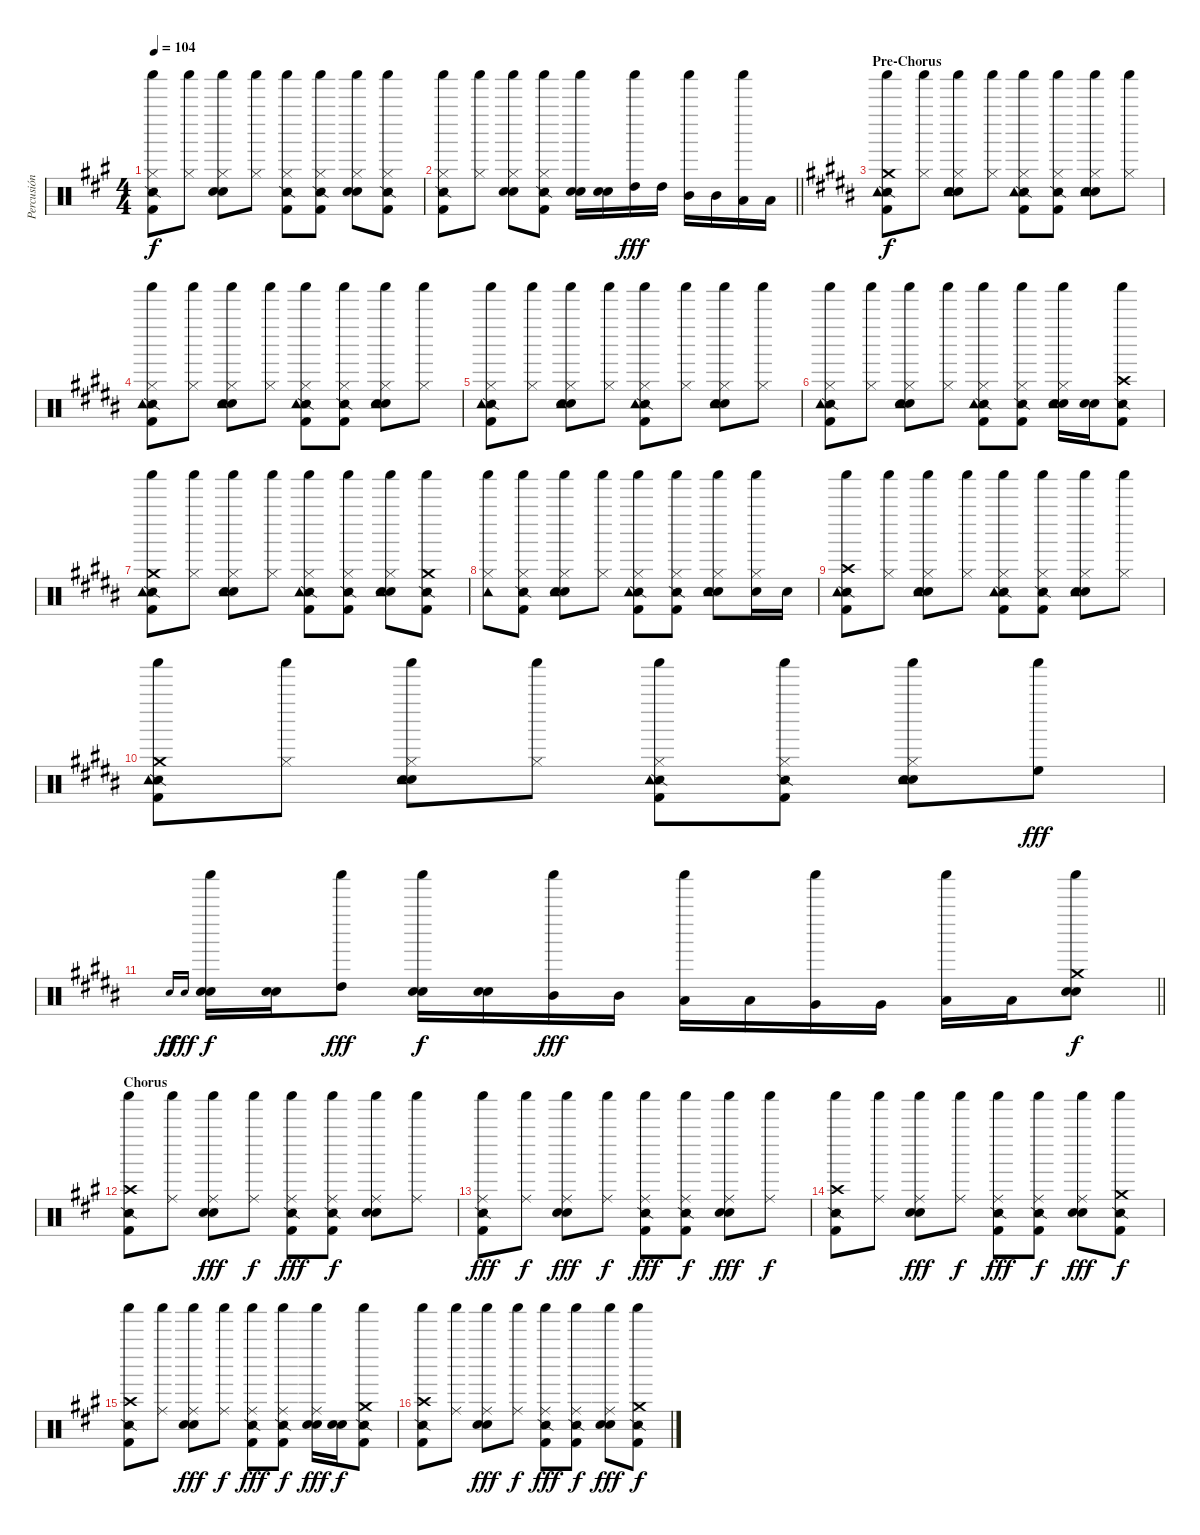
\track ("Percusión" "Percusión") {instrument percussion}
\staff {score}
\articulation defaults
\ts (4 4)
\tempo 104
\clef neutral
\ks a
("Hi-Hat (closed)" "Kick (hit) 2" "Snare (side stick) 2" "Shaker (hit)").8{dy f} ("Hi-Hat (closed)" "Shaker (hit)").8 ("Hi-Hat (closed)" "Snare (hit) 2" "Electric Snare (hit)" "Shaker (hit)").8 ("Hi-Hat (closed)" "Shaker (hit)").8 ("Hi-Hat (closed)" "Kick (hit) 2" "Snare (side stick) 2" "Shaker (hit)").8 ("Hi-Hat (closed)" "Kick (hit) 2" "Snare (side stick) 2" "Shaker (hit)").8 ("Hi-Hat (closed)" "Snare (hit) 2" "Electric Snare (hit)" "Shaker (hit)").8 ("Hi-Hat (closed)" "Kick (hit) 2" "Snare (side stick) 2" "Shaker (hit)").8 |
\barLineRight lightlight
("Hi-Hat (closed)" "Kick (hit) 2" "Snare (side stick) 2" "Shaker (hit)").8 ("Hi-Hat (closed)" "Shaker (hit)").8 ("Hi-Hat (closed)" "Snare (hit) 2" "Electric Snare (hit)" "Shaker (hit)").8 ("Hi-Hat (closed)" "Kick (hit) 2" "Snare (side stick) 2" "Shaker (hit)").8 ("Snare (hit) 2" "Electric Snare (hit)" "Shaker (hit)").16 ("Snare (hit) 2" "Electric Snare (hit)").16 ("High Tom (hit)" "Shaker (hit)").16{dy fff} "High Tom (hit)".16 ("Mid Tom (hit)" "Shaker (hit)").16 "Mid Tom (hit)".16 ("Low Tom (hit)" "Shaker (hit)").16 "Low Tom (hit)".16 |
\section ("" "Pre-Chorus")
\ks b
("Crash medium (hit)" "Kick (hit) 2" "Snare (side stick) 2" "Tambourine (hit)" "Shaker (hit)").8{dy f} ("Hi-Hat (closed)" "Shaker (hit)").8 ("Hi-Hat (closed)" "Snare (hit) 2" "Electric Snare (hit)" "Tambourine (hit)" "Shaker (hit)").8 ("Hi-Hat (closed)" "Shaker (hit)").8 ("Hi-Hat (closed)" "Kick (hit) 2" "Snare (side stick) 2" "Tambourine (hit)" "Shaker (hit)").8 ("Hi-Hat (closed)" "Kick (hit) 2" "Snare (side stick) 2" "Shaker (hit)").8 ("Hi-Hat (closed)" "Snare (hit) 2" "Electric Snare (hit)" "Tambourine (hit)" "Shaker (hit)").8 ("Hi-Hat (closed)" "Shaker (hit)").8 |
\ks g#minor
("Hi-Hat (closed)" "Kick (hit) 2" "Snare (side stick) 2" "Tambourine (hit)" "Shaker (hit)").8 ("Hi-Hat (closed)" "Shaker (hit)").8 ("Hi-Hat (closed)" "Snare (hit) 2" "Electric Snare (hit)" "Tambourine (hit)" "Shaker (hit)").8 ("Hi-Hat (closed)" "Shaker (hit)").8 ("Hi-Hat (closed)" "Kick (hit) 2" "Snare (side stick) 2" "Tambourine (hit)" "Shaker (hit)").8 ("Hi-Hat (closed)" "Kick (hit) 2" "Snare (side stick) 2" "Shaker (hit)").8 ("Hi-Hat (closed)" "Snare (hit) 2" "Electric Snare (hit)" "Tambourine (hit)" "Shaker (hit)").8 ("Hi-Hat (closed)" "Shaker (hit)").8 |
("Hi-Hat (closed)" "Kick (hit) 2" "Snare (side stick) 2" "Tambourine (hit)" "Shaker (hit)").8 ("Hi-Hat (closed)" "Shaker (hit)").8 ("Hi-Hat (closed)" "Snare (hit) 2" "Electric Snare (hit)" "Tambourine (hit)" "Shaker (hit)").8 ("Hi-Hat (closed)" "Shaker (hit)").8 ("Hi-Hat (closed)" "Kick (hit) 2" "Snare (side stick) 2" "Tambourine (hit)" "Shaker (hit)").8 ("Hi-Hat (closed)" "Shaker (hit)").8 ("Hi-Hat (closed)" "Snare (hit) 2" "Electric Snare (hit)" "Tambourine (hit)" "Shaker (hit)").8 ("Hi-Hat (closed)" "Shaker (hit)").8 |
("Hi-Hat (closed)" "Kick (hit) 2" "Snare (side stick) 2" "Tambourine (hit)" "Shaker (hit)").8 ("Hi-Hat (closed)" "Shaker (hit)").8 ("Hi-Hat (closed)" "Snare (hit) 2" "Electric Snare (hit)" "Tambourine (hit)" "Shaker (hit)").8 ("Hi-Hat (closed)" "Shaker (hit)").8 ("Hi-Hat (closed)" "Kick (hit) 2" "Snare (side stick) 2" "Tambourine (hit)" "Shaker (hit)").8 ("Hi-Hat (closed)" "Kick (hit) 2" "Snare (side stick) 2" "Shaker (hit)").8 ("Hi-Hat (closed)" "Snare (hit) 2" "Electric Snare (hit)" "Tambourine (hit)" "Shaker (hit)").16 ("Snare (hit) 2" "Electric Snare (hit)").16 ("Crash high (hit)" "Kick (hit) 2" "Snare (side stick) 2" "Shaker (hit)").8 |
("Crash medium (hit)" "Kick (hit) 2" "Snare (side stick) 2" "Tambourine (hit)" "Shaker (hit)").8 ("Hi-Hat (closed)" "Shaker (hit)").8 ("Hi-Hat (closed)" "Snare (hit) 2" "Electric Snare (hit)" "Tambourine (hit)" "Shaker (hit)").8 ("Hi-Hat (closed)" "Shaker (hit)").8 ("Hi-Hat (closed)" "Kick (hit) 2" "Snare (side stick) 2" "Tambourine (hit)" "Shaker (hit)").8 ("Hi-Hat (closed)" "Kick (hit) 2" "Snare (side stick) 2" "Shaker (hit)").8 ("Hi-Hat (closed)" "Snare (hit) 2" "Electric Snare (hit)" "Tambourine (hit)" "Shaker (hit)").8 ("Crash medium (hit)" "Kick (hit) 2" "Snare (side stick) 2" "Shaker (hit)").8 |
("Hi-Hat (closed)" "Tambourine (hit)" "Shaker (hit)").8 ("Hi-Hat (closed)" "Kick (hit) 2" "Snare (side stick) 2" "Shaker (hit)").8 ("Hi-Hat (closed)" "Snare (hit) 2" "Electric Snare (hit)" "Tambourine (hit)" "Shaker (hit)").8 ("Hi-Hat (closed)" "Shaker (hit)").8 ("Hi-Hat (closed)" "Kick (hit) 2" "Snare (side stick) 2" "Tambourine (hit)" "Shaker (hit)").8 ("Hi-Hat (closed)" "Kick (hit) 2" "Snare (side stick) 2" "Shaker (hit)").8 ("Hi-Hat (closed)" "Snare (hit) 2" "Electric Snare (hit)" "Tambourine (hit)" "Shaker (hit)").8 ("Hi-Hat (closed)" "Snare (hit) 2" "Shaker (hit)").16 "Snare (hit) 2".16 |
("Crash high (hit)" "Kick (hit) 2" "Snare (side stick) 2" "Tambourine (hit)" "Shaker (hit)").8 ("Hi-Hat (closed)" "Shaker (hit)").8 ("Hi-Hat (closed)" "Snare (hit) 2" "Electric Snare (hit)" "Tambourine (hit)" "Shaker (hit)").8 ("Hi-Hat (closed)" "Shaker (hit)").8 ("Hi-Hat (closed)" "Kick (hit) 2" "Snare (side stick) 2" "Tambourine (hit)" "Shaker (hit)").8 ("Hi-Hat (closed)" "Kick (hit) 2" "Snare (side stick) 2" "Shaker (hit)").8 ("Hi-Hat (closed)" "Snare (hit) 2" "Electric Snare (hit)" "Tambourine (hit)" "Shaker (hit)").8 ("Hi-Hat (closed)" "Shaker (hit)").8 |
("Crash medium (hit)" "Kick (hit) 2" "Snare (side stick) 2" "Tambourine (hit)" "Shaker (hit)").8 ("Hi-Hat (closed)" "Shaker (hit)").8 ("Hi-Hat (closed)" "Snare (hit) 2" "Electric Snare (hit)" "Tambourine (hit)" "Shaker (hit)").8 ("Hi-Hat (closed)" "Shaker (hit)").8 ("Hi-Hat (closed)" "Kick (hit) 2" "Snare (side stick) 2" "Tambourine (hit)" "Shaker (hit)").8 ("Hi-Hat (closed)" "Kick (hit) 2" "Snare (side stick) 2" "Shaker (hit)").8 ("Hi-Hat (closed)" "Snare (hit) 2" "Electric Snare (hit)" "Tambourine (hit)" "Shaker (hit)").8 ("High Floor Tom (hit)" "Shaker (hit)").8{dy fff} |
\barLineRight lightlight "Snare (hit) 2".16{gr onbeat dy ff} "Electric Snare (hit)".16{gr onbeat dy fff}
("Snare (hit) 2" "Electric Snare (hit)" "Shaker (hit)").16{dy f} ("Snare (hit) 2" "Electric Snare (hit)").16 ("High Tom (hit)" "Shaker (hit)").8{dy fff} ("Snare (hit) 2" "Electric Snare (hit)" "Shaker (hit)").16{dy f} ("Snare (hit) 2" "Electric Snare (hit)").16 ("Mid Tom (hit)" "Shaker (hit)").16{dy fff} "Mid Tom (hit)".16 ("Low Tom (hit)" "Shaker (hit)").16 "Low Tom (hit)".16 ("Very Low Tom (hit)" "Shaker (hit)").16 "Very Low Tom (hit)".16 ("Low Floor Tom (hit)" "Shaker (hit)").16 "Low Floor Tom (hit)".16 ("Crash medium (hit)" "Snare (hit) 2" "Electric Snare (hit)" "Shaker (hit)").8{dy f} |
\section ("" "Chorus")
\ks a
("Crash high (hit)" "Kick (hit) 2" "Snare (side stick) 2" "Shaker (hit)").8 ("Ride (middle)" "Shaker (hit)").8 ("Ride (middle)" "Snare (hit) 2" "Electric Snare (hit)" "Shaker (hit)").8{dy fff} ("Ride (middle)" "Shaker (hit)").8{dy f} ("Ride (middle)" "Kick (hit) 2" "Snare (side stick) 2" "Shaker (hit)").8{dy fff} ("Ride (middle)" "Kick (hit) 2" "Snare (side stick) 2" "Shaker (hit)").8{dy f} ("Ride (middle)" "Snare (hit) 2" "Electric Snare (hit)" "Shaker (hit)").8 ("Ride (middle)" "Shaker (hit)").8 |
("Ride (middle)" "Kick (hit) 2" "Snare (side stick) 2" "Shaker (hit)").8{dy fff} ("Ride (middle)" "Shaker (hit)").8{dy f} ("Ride (middle)" "Snare (hit) 2" "Electric Snare (hit)" "Shaker (hit)").8{dy fff} ("Ride (middle)" "Shaker (hit)").8{dy f} ("Ride (middle)" "Kick (hit) 2" "Snare (side stick) 2" "Shaker (hit)").8{dy fff} ("Ride (middle)" "Kick (hit) 2" "Snare (side stick) 2" "Shaker (hit)").8{dy f} ("Ride (middle)" "Snare (hit) 2" "Electric Snare (hit)" "Shaker (hit)").8{dy fff} ("Ride (middle)" "Shaker (hit)").8{dy f} |
("Crash high (hit)" "Kick (hit) 2" "Snare (side stick) 2" "Shaker (hit)").8 ("Ride (middle)" "Shaker (hit)").8 ("Ride (middle)" "Snare (hit) 2" "Electric Snare (hit)" "Shaker (hit)").8{dy fff} ("Ride (middle)" "Shaker (hit)").8{dy f} ("Ride (middle)" "Kick (hit) 2" "Snare (side stick) 2" "Shaker (hit)").8{dy fff} ("Ride (middle)" "Kick (hit) 2" "Snare (side stick) 2" "Shaker (hit)").8{dy f} ("Ride (middle)" "Snare (hit) 2" "Electric Snare (hit)" "Shaker (hit)").8{dy fff} ("Crash medium (hit)" "Kick (hit) 2" "Snare (side stick) 2" "Shaker (hit)").8{dy f} |
("Crash high (hit)" "Kick (hit) 2" "Snare (side stick) 2" "Shaker (hit)").8 ("Ride (middle)" "Shaker (hit)").8 ("Ride (middle)" "Snare (hit) 2" "Electric Snare (hit)" "Shaker (hit)").8{dy fff} ("Ride (middle)" "Shaker (hit)").8{dy f} ("Ride (middle)" "Kick (hit) 2" "Snare (side stick) 2" "Shaker (hit)").8{dy fff} ("Ride (middle)" "Kick (hit) 2" "Snare (side stick) 2" "Shaker (hit)").8{dy f} ("Ride (middle)" "Snare (hit) 2" "Electric Snare (hit)" "Shaker (hit)").16{dy fff} ("Snare (hit) 2" "Electric Snare (hit)").16{dy f} ("Crash medium (hit)" "Kick (hit) 2" "Snare (side stick) 2" "Shaker (hit)").8 |
("Crash high (hit)" "Kick (hit) 2" "Snare (side stick) 2" "Shaker (hit)").8 ("Ride (middle)" "Shaker (hit)").8 ("Ride (middle)" "Snare (hit) 2" "Electric Snare (hit)" "Shaker (hit)").8{dy fff} ("Ride (middle)" "Shaker (hit)").8{dy f} ("Ride (middle)" "Kick (hit) 2" "Snare (side stick) 2" "Shaker (hit)").8{dy fff} ("Ride (middle)" "Kick (hit) 2" "Snare (side stick) 2" "Shaker (hit)").8{dy f} ("Ride (middle)" "Snare (hit) 2" "Electric Snare (hit)" "Shaker (hit)").8{dy fff} ("Crash medium (hit)" "Kick (hit) 2" "Snare (side stick) 2" "Shaker (hit)").8{dy f}
